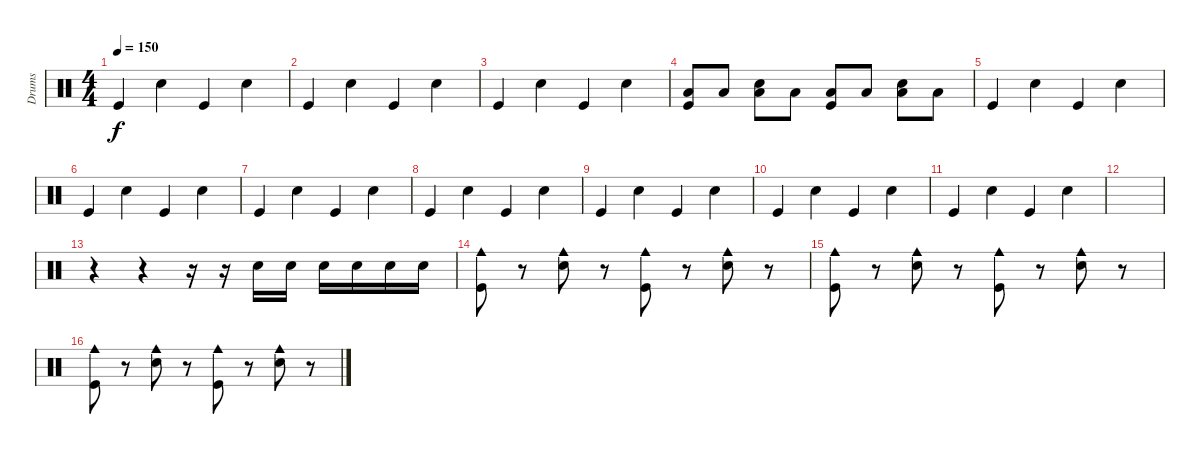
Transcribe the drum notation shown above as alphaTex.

\track ("Drums" "Drums") {instrument percussion}
\staff {score}
\articulation defaults
\ts (4 4)
\tempo 150
\clef neutral
\ks c "Kick (hit)".4{dy f} "Snare (hit) 2".4 "Kick (hit)".4 "Snare (hit) 2".4
|
"Kick (hit)".4 "Snare (hit) 2".4 "Kick (hit)".4 "Snare (hit) 2".4 |
"Kick (hit)".4 "Snare (hit) 2".4 "Kick (hit)".4 "Snare (hit) 2".4 |
("Low Tom (hit)" "Kick (hit)").8 "Low Tom (hit)".8 ("Low Tom (hit)" "Snare (hit) 2").8 "Low Tom (hit)".8 ("Low Tom (hit)" "Kick (hit)").8 "Low Tom (hit)".8 ("Low Tom (hit)" "Snare (hit) 2").8 "Low Tom (hit)".8 |
"Kick (hit)".4 "Snare (hit) 2".4 "Kick (hit)".4 "Snare (hit) 2".4 |
"Kick (hit)".4 "Snare (hit) 2".4 "Kick (hit)".4 "Snare (hit) 2".4 |
"Kick (hit)".4 "Snare (hit) 2".4 "Kick (hit)".4 "Snare (hit) 2".4 |
"Kick (hit)".4 "Snare (hit) 2".4 "Kick (hit)".4 "Snare (hit) 2".4 |
"Kick (hit)".4 "Snare (hit) 2".4 "Kick (hit)".4 "Snare (hit) 2".4 |
"Kick (hit)".4 "Snare (hit) 2".4 "Kick (hit)".4 "Snare (hit) 2".4 |
"Kick (hit)".4 "Snare (hit) 2".4 "Kick (hit)".4 "Snare (hit) 2".4 |
|
r.4 r.4 r.16 r.16 "Snare (hit) 2".16 "Snare (hit) 2".16 "Snare (hit) 2".16 "Snare (hit) 2".16 "Snare (hit) 2".16 "Snare (hit) 2".16 |
("Cowbell medium (hit)" "Kick (hit)").8 r.8 ("Cowbell medium (hit)" "Snare (hit) 2").8 r.8 ("Cowbell medium (hit)" "Kick (hit)").8 r.8 ("Cowbell medium (hit)" "Snare (hit) 2").8 r.8 |
("Cowbell medium (hit)" "Kick (hit)").8 r.8 ("Cowbell medium (hit)" "Snare (hit) 2").8 r.8 ("Cowbell medium (hit)" "Kick (hit)").8 r.8 ("Cowbell medium (hit)" "Snare (hit) 2").8 r.8 |
("Cowbell medium (hit)" "Kick (hit)").8 r.8 ("Cowbell medium (hit)" "Snare (hit) 2").8 r.8 ("Cowbell medium (hit)" "Kick (hit)").8 r.8 ("Cowbell medium (hit)" "Snare (hit) 2").8 r.8
